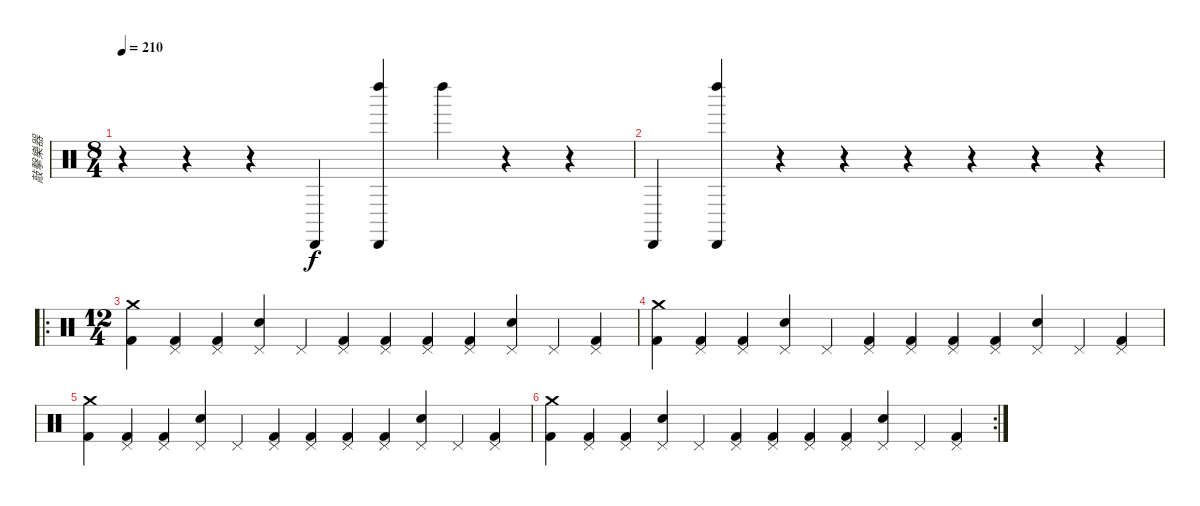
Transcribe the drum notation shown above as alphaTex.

\track ("敲擊樂器" "敲擊樂器") {instrument percussion}
\staff {score}
\articulation defaults
\ts (8 4)
\tempo 210
\clef neutral
\ks c
r.4{dy f} r.4 r.4 "Cabasa (hit)".4 ("Left Maraca (hit)" "Cabasa (hit)").4 "Left Maraca (hit)".4 r.4 r.4 |
"Cabasa (hit)".4 ("Left Maraca (hit)" "Cabasa (hit)").4 r.4 r.4 r.4 r.4 r.4 r.4 |
\ro
\ts (12 4)
("Crash medium (hit)" "Kick (hit) 2").4 ("Pedal Hi-Hat (hit)" "Kick (hit) 2").4 ("Pedal Hi-Hat (hit)" "Kick (hit) 2").4 ("Pedal Hi-Hat (hit)" "Snare (hit) 2").4 "Pedal Hi-Hat (hit)".4 ("Pedal Hi-Hat (hit)" "Kick (hit) 2").4 ("Pedal Hi-Hat (hit)" "Kick (hit) 2").4 ("Pedal Hi-Hat (hit)" "Kick (hit) 2").4 ("Pedal Hi-Hat (hit)" "Kick (hit) 2").4 ("Pedal Hi-Hat (hit)" "Snare (hit) 2").4 "Pedal Hi-Hat (hit)".4 ("Pedal Hi-Hat (hit)" "Kick (hit) 2").4 |
("Crash medium (hit)" "Kick (hit) 2").4 ("Pedal Hi-Hat (hit)" "Kick (hit) 2").4 ("Pedal Hi-Hat (hit)" "Kick (hit) 2").4 ("Pedal Hi-Hat (hit)" "Snare (hit) 2").4 "Pedal Hi-Hat (hit)".4 ("Pedal Hi-Hat (hit)" "Kick (hit) 2").4 ("Pedal Hi-Hat (hit)" "Kick (hit) 2").4 ("Pedal Hi-Hat (hit)" "Kick (hit) 2").4 ("Pedal Hi-Hat (hit)" "Kick (hit) 2").4 ("Pedal Hi-Hat (hit)" "Snare (hit) 2").4 "Pedal Hi-Hat (hit)".4 ("Pedal Hi-Hat (hit)" "Kick (hit) 2").4 |
("Crash medium (hit)" "Kick (hit) 2").4 ("Pedal Hi-Hat (hit)" "Kick (hit) 2").4 ("Pedal Hi-Hat (hit)" "Kick (hit) 2").4 ("Pedal Hi-Hat (hit)" "Snare (hit) 2").4 "Pedal Hi-Hat (hit)".4 ("Pedal Hi-Hat (hit)" "Kick (hit) 2").4 ("Pedal Hi-Hat (hit)" "Kick (hit) 2").4 ("Pedal Hi-Hat (hit)" "Kick (hit) 2").4 ("Pedal Hi-Hat (hit)" "Kick (hit) 2").4 ("Pedal Hi-Hat (hit)" "Snare (hit) 2").4 "Pedal Hi-Hat (hit)".4 ("Pedal Hi-Hat (hit)" "Kick (hit) 2").4 |
\rc 2
("Crash medium (hit)" "Kick (hit) 2").4 ("Pedal Hi-Hat (hit)" "Kick (hit) 2").4 ("Pedal Hi-Hat (hit)" "Kick (hit) 2").4 ("Pedal Hi-Hat (hit)" "Snare (hit) 2").4 "Pedal Hi-Hat (hit)".4 ("Pedal Hi-Hat (hit)" "Kick (hit) 2").4 ("Pedal Hi-Hat (hit)" "Kick (hit) 2").4 ("Pedal Hi-Hat (hit)" "Kick (hit) 2").4 ("Pedal Hi-Hat (hit)" "Kick (hit) 2").4 ("Pedal Hi-Hat (hit)" "Snare (hit) 2").4 "Pedal Hi-Hat (hit)".4 ("Pedal Hi-Hat (hit)" "Kick (hit) 2").4
